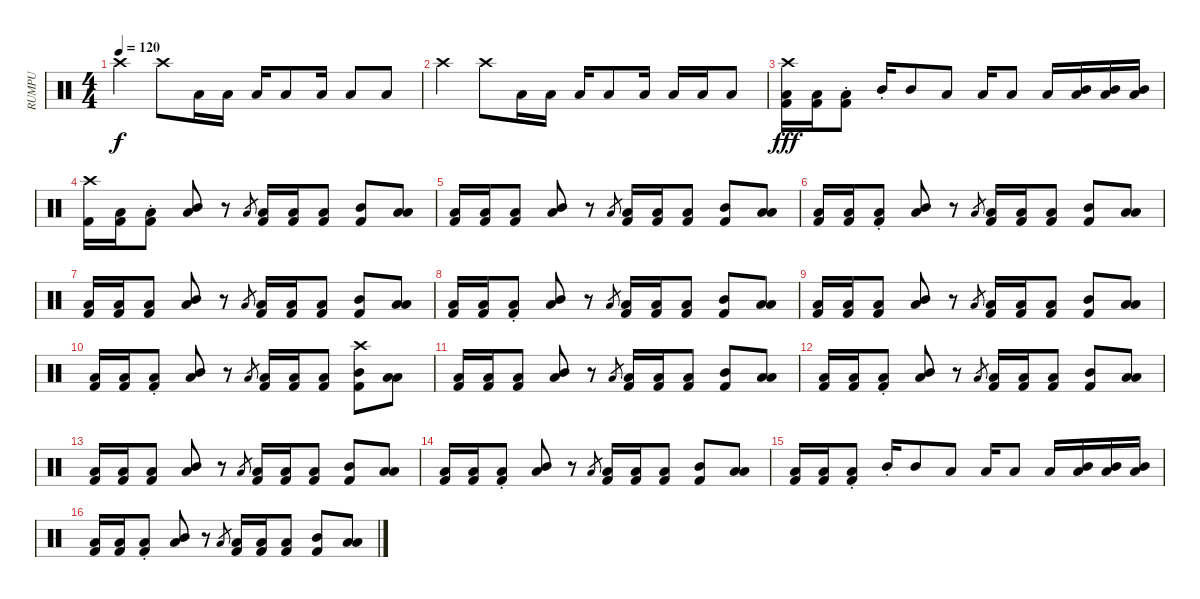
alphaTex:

\track ("RUMPU" "RUMPU") {instrument percussion}
\staff {score}
\articulation defaults
\ts (4 4)
\tempo 120
\clef neutral
\ks c "Crash high (hit)".4{dy f} "Crash high (hit)".8 "Low Floor Tom (hit)".16 "Low Floor Tom (hit)".16 "Low Floor Tom (hit)".16 "Low Floor Tom (hit)".8 "Low Floor Tom (hit)".16 "Low Floor Tom (hit)".8 "Low Floor Tom (hit)".8
|
"Crash high (hit)".4 "Crash high (hit)".8 "Low Floor Tom (hit)".16 "Low Floor Tom (hit)".16 "Low Floor Tom (hit)".16 "Low Floor Tom (hit)".8 "Low Floor Tom (hit)".16 "Low Floor Tom (hit)".16 "Low Floor Tom (hit)".16 "Low Floor Tom (hit)".8 |
("Low Floor Tom (hit)" "Crash high (hit)" "Kick (hit) 2").16{dy fff} ("Low Floor Tom (hit)" "Kick (hit) 2").16 ("Low Floor Tom (hit)"{st} "Kick (hit) 2").8 "Mid Tom (hit)"{st}.16 "Mid Tom (hit)".8 "Low Floor Tom (hit)".8 "Low Floor Tom (hit)".16 "Low Floor Tom (hit)".8 "Low Floor Tom (hit)".16 ("Low Floor Tom (hit)" "Mid Tom (hit)").16 ("Low Floor Tom (hit)" "Mid Tom (hit)").16 ("Low Floor Tom (hit)" "Mid Tom (hit)").16 |
("Crash high (hit)" "Kick (hit) 2").16 ("Low Floor Tom (hit)" "Kick (hit) 2").16 ("Low Floor Tom (hit)" "Kick (hit) 2"{st}).8 ("Low Floor Tom (hit)" "Mid Tom (hit)").8 r.8 "Low Floor Tom (hit)".8{gr} ("Low Floor Tom (hit)" "Kick (hit) 2").16 ("Low Floor Tom (hit)" "Kick (hit) 2").16 ("Low Floor Tom (hit)" "Kick (hit) 2").8 ("Mid Tom (hit)" "Kick (hit) 2").8 ("Low Floor Tom (hit)" "Low Tom (hit)").8 |
("Low Floor Tom (hit)" "Kick (hit) 2").16 ("Low Floor Tom (hit)" "Kick (hit) 2").16 ("Low Floor Tom (hit)" "Kick (hit) 2").8 ("Low Floor Tom (hit)" "Mid Tom (hit)").8 r.8 "Low Floor Tom (hit)".8{gr} ("Low Floor Tom (hit)" "Kick (hit) 2").16 ("Low Floor Tom (hit)" "Kick (hit) 2").16 ("Low Floor Tom (hit)" "Kick (hit) 2").8 ("Mid Tom (hit)" "Kick (hit) 2").8 ("Low Floor Tom (hit)" "Low Tom (hit)").8 |
("Low Floor Tom (hit)" "Kick (hit) 2").16 ("Low Floor Tom (hit)" "Kick (hit) 2").16 ("Low Floor Tom (hit)" "Kick (hit) 2"{st}).8 ("Low Floor Tom (hit)" "Mid Tom (hit)").8 r.8 "Low Floor Tom (hit)".8{gr} ("Low Floor Tom (hit)" "Kick (hit) 2").16 ("Low Floor Tom (hit)" "Kick (hit) 2").16 ("Low Floor Tom (hit)" "Kick (hit) 2").8 ("Mid Tom (hit)" "Kick (hit) 2").8 ("Low Floor Tom (hit)" "Low Tom (hit)").8 |
("Low Floor Tom (hit)" "Kick (hit) 2").16 ("Low Floor Tom (hit)" "Kick (hit) 2").16 ("Low Floor Tom (hit)" "Kick (hit) 2").8 ("Low Floor Tom (hit)" "Mid Tom (hit)").8 r.8 "Low Floor Tom (hit)".8{gr} ("Low Floor Tom (hit)" "Kick (hit) 2").16 ("Low Floor Tom (hit)" "Kick (hit) 2").16 ("Low Floor Tom (hit)" "Kick (hit) 2").8 ("Mid Tom (hit)" "Kick (hit) 2").8 ("Low Floor Tom (hit)" "Low Tom (hit)").8 |
("Low Floor Tom (hit)" "Kick (hit) 2").16 ("Low Floor Tom (hit)" "Kick (hit) 2").16 ("Low Floor Tom (hit)" "Kick (hit) 2"{st}).8 ("Low Floor Tom (hit)" "Mid Tom (hit)").8 r.8 "Low Floor Tom (hit)".8{gr} ("Low Floor Tom (hit)" "Kick (hit) 2").16 ("Low Floor Tom (hit)" "Kick (hit) 2").16 ("Low Floor Tom (hit)" "Kick (hit) 2").8 ("Mid Tom (hit)" "Kick (hit) 2").8 ("Low Floor Tom (hit)" "Low Tom (hit)").8 |
("Low Floor Tom (hit)" "Kick (hit) 2").16 ("Low Floor Tom (hit)" "Kick (hit) 2").16 ("Low Floor Tom (hit)" "Kick (hit) 2").8 ("Low Floor Tom (hit)" "Mid Tom (hit)").8 r.8 "Low Floor Tom (hit)".8{gr} ("Low Floor Tom (hit)" "Kick (hit) 2").16 ("Low Floor Tom (hit)" "Kick (hit) 2").16 ("Low Floor Tom (hit)" "Kick (hit) 2").8 ("Mid Tom (hit)" "Kick (hit) 2").8 ("Low Floor Tom (hit)" "Low Tom (hit)").8 |
("Low Floor Tom (hit)" "Kick (hit) 2").16 ("Low Floor Tom (hit)" "Kick (hit) 2").16 ("Low Floor Tom (hit)" "Kick (hit) 2"{st}).8 ("Low Floor Tom (hit)" "Mid Tom (hit)").8 r.8 "Low Floor Tom (hit)".8{gr} ("Low Floor Tom (hit)" "Kick (hit) 2").16 ("Low Floor Tom (hit)" "Kick (hit) 2").16 ("Low Floor Tom (hit)" "Kick (hit) 2").8 ("Crash high (hit)" "Mid Tom (hit)" "Kick (hit) 2").8 ("Low Floor Tom (hit)" "Low Tom (hit)").8 |
("Low Floor Tom (hit)" "Kick (hit) 2").16 ("Low Floor Tom (hit)" "Kick (hit) 2").16 ("Low Floor Tom (hit)" "Kick (hit) 2").8 ("Low Floor Tom (hit)" "Mid Tom (hit)").8 r.8 "Low Floor Tom (hit)".8{gr} ("Low Floor Tom (hit)" "Kick (hit) 2").16 ("Low Floor Tom (hit)" "Kick (hit) 2").16 ("Low Floor Tom (hit)" "Kick (hit) 2").8 ("Mid Tom (hit)" "Kick (hit) 2").8 ("Low Floor Tom (hit)" "Low Tom (hit)").8 |
("Low Floor Tom (hit)" "Kick (hit) 2").16 ("Low Floor Tom (hit)" "Kick (hit) 2").16 ("Low Floor Tom (hit)" "Kick (hit) 2"{st}).8 ("Low Floor Tom (hit)" "Mid Tom (hit)").8 r.8 "Low Floor Tom (hit)".8{gr} ("Low Floor Tom (hit)" "Kick (hit) 2").16 ("Low Floor Tom (hit)" "Kick (hit) 2").16 ("Low Floor Tom (hit)" "Kick (hit) 2").8 ("Mid Tom (hit)" "Kick (hit) 2").8 ("Low Floor Tom (hit)" "Low Tom (hit)").8 |
("Low Floor Tom (hit)" "Kick (hit) 2").16 ("Low Floor Tom (hit)" "Kick (hit) 2").16 ("Low Floor Tom (hit)" "Kick (hit) 2").8 ("Low Floor Tom (hit)" "Mid Tom (hit)").8 r.8 "Low Floor Tom (hit)".8{gr} ("Low Floor Tom (hit)" "Kick (hit) 2").16 ("Low Floor Tom (hit)" "Kick (hit) 2").16 ("Low Floor Tom (hit)" "Kick (hit) 2").8 ("Mid Tom (hit)" "Kick (hit) 2").8 ("Low Floor Tom (hit)" "Low Tom (hit)").8 |
("Low Floor Tom (hit)" "Kick (hit) 2").16 ("Low Floor Tom (hit)" "Kick (hit) 2").16 ("Low Floor Tom (hit)" "Kick (hit) 2"{st}).8 ("Low Floor Tom (hit)" "Mid Tom (hit)").8 r.8 "Low Floor Tom (hit)".8{gr} ("Low Floor Tom (hit)" "Kick (hit) 2").16 ("Low Floor Tom (hit)" "Kick (hit) 2").16 ("Low Floor Tom (hit)" "Kick (hit) 2").8 ("Mid Tom (hit)" "Kick (hit) 2").8 ("Low Floor Tom (hit)" "Low Tom (hit)").8 |
("Low Floor Tom (hit)" "Kick (hit) 2").16 ("Low Floor Tom (hit)" "Kick (hit) 2").16 ("Low Floor Tom (hit)"{st} "Kick (hit) 2").8 "Mid Tom (hit)"{st}.16 "Mid Tom (hit)".8 "Low Floor Tom (hit)".8 "Low Floor Tom (hit)".16 "Low Floor Tom (hit)".8 "Low Floor Tom (hit)".16 ("Low Floor Tom (hit)" "Mid Tom (hit)").16 ("Low Floor Tom (hit)" "Mid Tom (hit)").16 ("Low Floor Tom (hit)" "Mid Tom (hit)").16 |
("Low Floor Tom (hit)" "Kick (hit) 2").16 ("Low Floor Tom (hit)" "Kick (hit) 2").16 ("Low Floor Tom (hit)" "Kick (hit) 2"{st}).8 ("Low Floor Tom (hit)" "Mid Tom (hit)").8 r.8 "Low Floor Tom (hit)".8{gr} ("Low Floor Tom (hit)" "Kick (hit) 2").16 ("Low Floor Tom (hit)" "Kick (hit) 2").16 ("Low Floor Tom (hit)" "Kick (hit) 2").8 ("Mid Tom (hit)" "Kick (hit) 2").8 ("Low Floor Tom (hit)" "Low Tom (hit)").8
